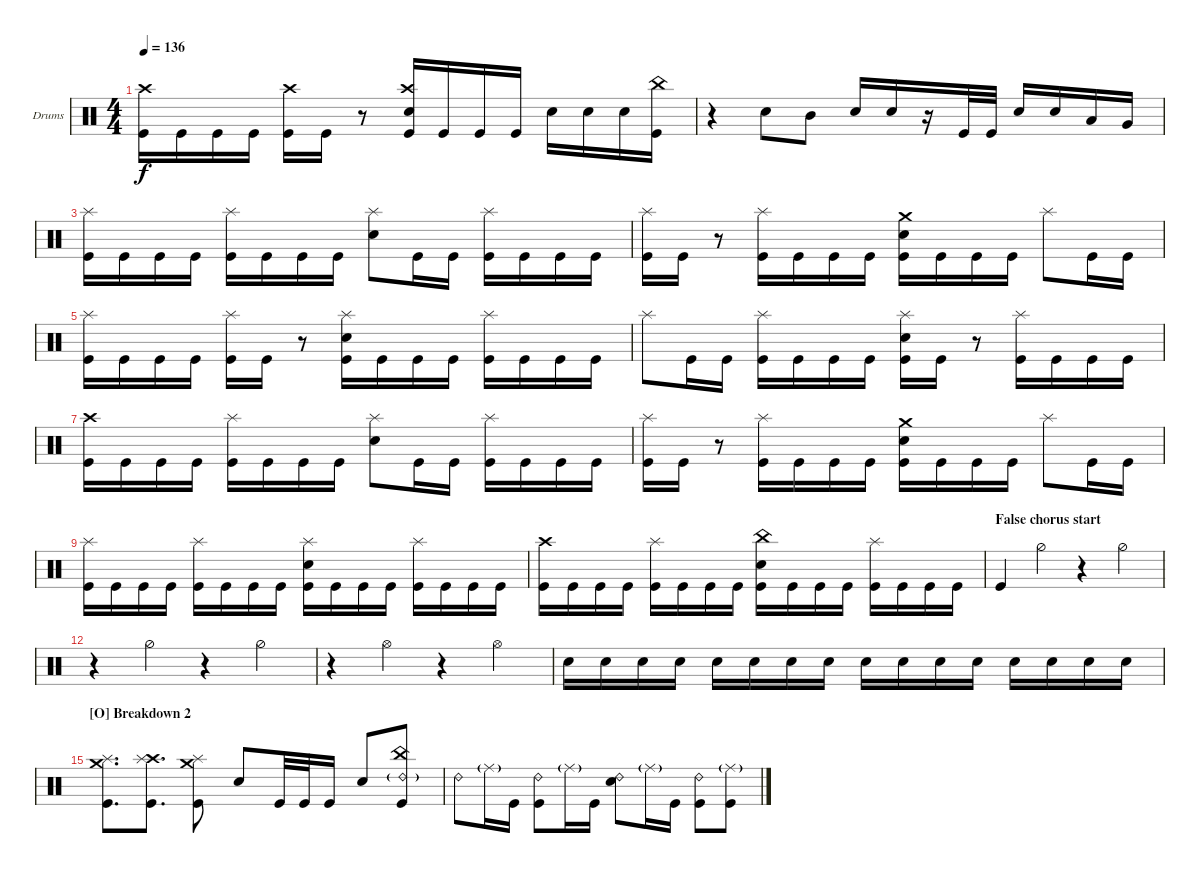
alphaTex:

\defaultSystemsLayout 4
\bracketExtendMode groupsimilarinstruments
\firstSystemTrackNameOrientation horizontal
\otherSystemsTrackNameOrientation horizontal
\defaultBarNumberDisplay FirstOfSystem
\track ("Drumkit" "Drums") {multiBarRest instrument percussion}
\staff {score}
\articulation defaults
\ts (4 4)
\tempo 136
\clef neutral
\ks c
("Kick (hit)" "Crash high (hit)").16{dy f} "Kick (hit)".16 "Kick (hit)".16 "Kick (hit)".16 ("Kick (hit)" "Crash high (hit)").16 "Kick (hit)".16 r.8 ("Kick (hit)" "Snare (hit) 2" "Crash high (hit)").16 "Kick (hit)".16 "Kick (hit)".16 "Kick (hit)".16 "Snare (hit) 2".16 "Snare (hit) 2".16 "Snare (hit) 2".16 ("Kick (hit)" "China (hit)").16 |
r.4 "Snare (hit) 2".8 "Mid Tom (hit)".8 "Snare (hit) 2".16 "Snare (hit) 2".16 r.16 "Kick (hit)".32 "Kick (hit)".32 "Snare (hit) 2".16 "Snare (hit) 2".16 "Low Tom (hit)".16 "Very Low Tom (hit)".16 |
("Kick (hit)" "Splash (hit)").16 "Kick (hit)".16 "Kick (hit)".16 "Kick (hit)".16 ("Kick (hit)" "Splash (hit)").16 "Kick (hit)".16 "Kick (hit)".16 "Kick (hit)".16 ("Snare (hit) 2" "Splash (hit)").8 "Kick (hit)".16 "Kick (hit)".16 ("Kick (hit)" "Splash (hit)").16 "Kick (hit)".16 "Kick (hit)".16 "Kick (hit)".16 |
("Splash (hit)" "Kick (hit)").16 "Kick (hit)".16 r.8 ("Splash (hit)" "Kick (hit)").16 "Kick (hit)".16 "Kick (hit)".16 "Kick (hit)".16 ("Kick (hit)" "Snare (hit) 2" "Crash medium (hit)").16 "Kick (hit)".16 "Kick (hit)".16 "Kick (hit)".16 "Splash (hit)".8 "Kick (hit)".16 "Kick (hit)".16 |
("Kick (hit)" "Splash (hit)").16 "Kick (hit)".16 "Kick (hit)".16 "Kick (hit)".16 ("Kick (hit)" "Splash (hit)").16 "Kick (hit)".16 r.8 ("Kick (hit)" "Splash (hit)" "Snare (hit) 2").16 "Kick (hit)".16 "Kick (hit)".16 "Kick (hit)".16 ("Kick (hit)" "Splash (hit)").16 "Kick (hit)".16 "Kick (hit)".16 "Kick (hit)".16 |
"Splash (hit)".8 "Kick (hit)".16 "Kick (hit)".16 ("Kick (hit)" "Splash (hit)").16 "Kick (hit)".16 "Kick (hit)".16 "Kick (hit)".16 ("Kick (hit)" "Splash (hit)" "Snare (hit) 2").16 "Kick (hit)".16 r.8 ("Kick (hit)" "Splash (hit)").16 "Kick (hit)".16 "Kick (hit)".16 "Kick (hit)".16 |
("Kick (hit)" "Crash high (hit)").16 "Kick (hit)".16 "Kick (hit)".16 "Kick (hit)".16 ("Kick (hit)" "Splash (hit)").16 "Kick (hit)".16 "Kick (hit)".16 "Kick (hit)".16 ("Snare (hit) 2" "Splash (hit)").8 "Kick (hit)".16 "Kick (hit)".16 ("Kick (hit)" "Splash (hit)").16 "Kick (hit)".16 "Kick (hit)".16 "Kick (hit)".16 |
("Splash (hit)" "Kick (hit)").16 "Kick (hit)".16 r.8 ("Splash (hit)" "Kick (hit)").16 "Kick (hit)".16 "Kick (hit)".16 "Kick (hit)".16 ("Kick (hit)" "Snare (hit) 2" "Crash medium (hit)").16 "Kick (hit)".16 "Kick (hit)".16 "Kick (hit)".16 "Splash (hit)".8 "Kick (hit)".16 "Kick (hit)".16 |
("Kick (hit)" "Splash (hit)").16 "Kick (hit)".16 "Kick (hit)".16 "Kick (hit)".16 ("Kick (hit)" "Splash (hit)").16 "Kick (hit)".16 "Kick (hit)".16 "Kick (hit)".16 ("Kick (hit)" "Splash (hit)" "Snare (hit) 2").16 "Kick (hit)".16 "Kick (hit)".16 "Kick (hit)".16 ("Kick (hit)" "Splash (hit)").16 "Kick (hit)".16 "Kick (hit)".16 "Kick (hit)".16 |
("Kick (hit)" "Crash high (hit)").16 "Kick (hit)".16 "Kick (hit)".16 "Kick (hit)".16 ("Kick (hit)" "Splash (hit)").16 "Kick (hit)".16 "Kick (hit)".16 "Kick (hit)".16 ("Kick (hit)" "Snare (hit) 2" "China (hit)").16 "Kick (hit)".16 "Kick (hit)".16 "Kick (hit)".16 ("Kick (hit)" "Splash (hit)").16 "Kick (hit)".16 "Kick (hit)".16 "Kick (hit)".16 |
\section ("" "False chorus start")
"Kick (hit)".4 "Hi-Hat (half)".4 r.4 "Hi-Hat (half)".4 |
r.4 "Hi-Hat (half)".4 r.4 "Hi-Hat (half)".4 |
r.4 "Hi-Hat (open)".4 r.4 "Hi-Hat (open)".4 |
"Snare (hit) 2".16 "Snare (hit) 2".16 "Snare (hit) 2".16 "Snare (hit) 2".16 "Snare (hit) 2".16 "Snare (hit) 2".16 "Snare (hit) 2".16 "Snare (hit) 2".16 "Snare (hit) 2".16 "Snare (hit) 2".16 "Snare (hit) 2".16 "Snare (hit) 2".16 "Snare (hit) 2".16 "Snare (hit) 2".16 "Snare (hit) 2".16 "Snare (hit) 2".16 |
\section ("O" "Breakdown 2")
("Crash medium (hit)" "Kick (hit)" "Splash (hit)").8{d} ("Kick (hit)" "Crash high (hit)" "Splash (hit)").8{d} ("Crash medium (hit)" "Kick (hit)" "Splash (hit)").8 "Snare (hit) 2".8 "Kick (hit)".32 "Kick (hit)".32 "Kick (hit)".16 "Snare (hit) 2".8 ("Ride (bell) 2"{g} "Kick (hit)" "China (hit)").8 |
"Ride (bell) 2".8 "Ride (middle)"{g}.16 "Kick (hit)".16 ("Ride (bell) 2" "Kick (hit)").8 "Ride (middle)"{g}.16 "Kick (hit)".16 ("Ride (bell) 2" "Snare (hit) 2").8 "Ride (middle)"{g}.16 "Kick (hit)".16 ("Ride (bell) 2" "Kick (hit)").8 ("Kick (hit)" "Ride (middle)"{g}).8
